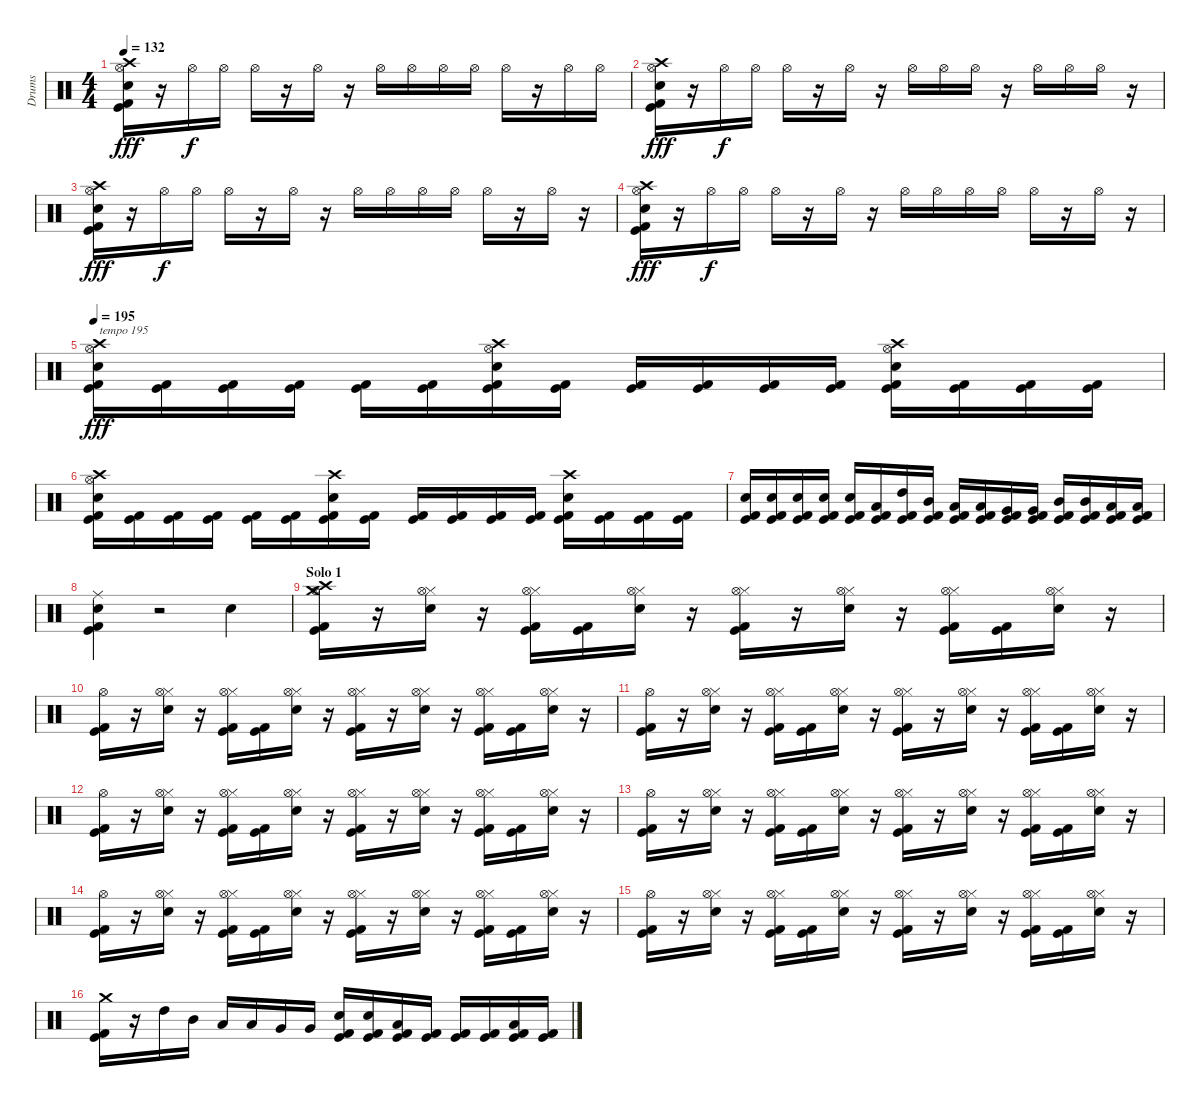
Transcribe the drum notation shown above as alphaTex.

\track ("Drums" "Drums") {instrument percussion}
\staff {score}
\articulation defaults
\ts (4 4)
\tempo 132
\clef neutral
\ks c
("Kick (hit) 2" "Kick (hit)" "Snare (hit) 2" "Crash high (hit)" "Hi-Hat (open)").16{dy fff} r.16 "Hi-Hat (open)".16{dy f} "Hi-Hat (open)".16 "Hi-Hat (open)".16 r.16 "Hi-Hat (open)".16 r.16 "Hi-Hat (open)".16 "Hi-Hat (open)".16 "Hi-Hat (open)".16 "Hi-Hat (open)".16 "Hi-Hat (open)".16 r.16 "Hi-Hat (open)".16 "Hi-Hat (open)".16 |
("Kick (hit) 2" "Kick (hit)" "Snare (hit) 2" "Crash high (hit)" "Hi-Hat (open)").16{dy fff} r.16 "Hi-Hat (open)".16{dy f} "Hi-Hat (open)".16 "Hi-Hat (open)".16 r.16 "Hi-Hat (open)".16 r.16 "Hi-Hat (open)".16 "Hi-Hat (open)".16 "Hi-Hat (open)".16 r.16 "Hi-Hat (open)".16 "Hi-Hat (open)".16 "Hi-Hat (open)".16 r.16 |
("Kick (hit) 2" "Kick (hit)" "Snare (hit) 2" "Crash high (hit)" "Hi-Hat (open)").16{dy fff} r.16 "Hi-Hat (open)".16{dy f} "Hi-Hat (open)".16 "Hi-Hat (open)".16 r.16 "Hi-Hat (open)".16 r.16 "Hi-Hat (open)".16 "Hi-Hat (open)".16 "Hi-Hat (open)".16 "Hi-Hat (open)".16 "Hi-Hat (open)".16 r.16 "Hi-Hat (open)".16 r.16 |
("Kick (hit) 2" "Kick (hit)" "Snare (hit) 2" "Crash high (hit)" "Hi-Hat (open)").16{dy fff} r.16 "Hi-Hat (open)".16{dy f} "Hi-Hat (open)".16 "Hi-Hat (open)".16 r.16 "Hi-Hat (open)".16 r.16 "Hi-Hat (open)".16 "Hi-Hat (open)".16 "Hi-Hat (open)".16 "Hi-Hat (open)".16 "Hi-Hat (open)".16 r.16 "Hi-Hat (open)".16 r.16 |
\tempo 195
("Kick (hit) 2" "Kick (hit)" "Snare (hit) 2" "Crash high (hit)" "Hi-Hat (open)").16{txt "tempo 195" dy fff} ("Kick (hit) 2" "Kick (hit)").16 ("Kick (hit) 2" "Kick (hit)").16 ("Kick (hit) 2" "Kick (hit)").16 ("Kick (hit) 2" "Kick (hit)").16 ("Kick (hit) 2" "Kick (hit)").16 ("Kick (hit) 2" "Kick (hit)" "Snare (hit) 2" "Crash high (hit)" "Hi-Hat (open)").16 ("Kick (hit) 2" "Kick (hit)").16 ("Kick (hit) 2" "Kick (hit)").16 ("Kick (hit) 2" "Kick (hit)").16 ("Kick (hit) 2" "Kick (hit)").16 ("Kick (hit) 2" "Kick (hit)").16 ("Kick (hit) 2" "Kick (hit)" "Snare (hit) 2" "Crash high (hit)" "Hi-Hat (open)").16 ("Kick (hit) 2" "Kick (hit)").16 ("Kick (hit) 2" "Kick (hit)").16 ("Kick (hit) 2" "Kick (hit)").16 |
("Kick (hit) 2" "Kick (hit)" "Snare (hit) 2" "Crash high (hit)" "Hi-Hat (open)").16 ("Kick (hit) 2" "Kick (hit)").16 ("Kick (hit) 2" "Kick (hit)").16 ("Kick (hit) 2" "Kick (hit)").16 ("Kick (hit) 2" "Kick (hit)").16 ("Kick (hit) 2" "Kick (hit)").16 ("Kick (hit) 2" "Kick (hit)" "Snare (hit) 2" "Crash high (hit)").16 ("Kick (hit) 2" "Kick (hit)").16 ("Kick (hit) 2" "Kick (hit)").16 ("Kick (hit) 2" "Kick (hit)").16 ("Kick (hit) 2" "Kick (hit)").16 ("Kick (hit) 2" "Kick (hit)").16 ("Kick (hit) 2" "Kick (hit)" "Snare (hit) 2" "Crash high (hit)").16 ("Kick (hit) 2" "Kick (hit)").16 ("Kick (hit) 2" "Kick (hit)").16 ("Kick (hit) 2" "Kick (hit)").16 |
("Kick (hit) 2" "Kick (hit)" "Snare (hit) 2").16 ("Kick (hit) 2" "Kick (hit)" "Snare (hit) 2").16 ("Kick (hit) 2" "Kick (hit)" "Snare (hit) 2").16 ("Kick (hit) 2" "Kick (hit)" "Snare (hit) 2").16 ("Kick (hit) 2" "Kick (hit)" "Snare (hit) 2").16 ("Kick (hit) 2" "Kick (hit)" "Low Tom (hit)").16 ("Kick (hit) 2" "Kick (hit)" "High Tom (hit)").16 ("Kick (hit) 2" "Kick (hit)" "Mid Tom (hit)").16 ("Kick (hit) 2" "Kick (hit)" "Low Tom (hit)").16 ("Kick (hit) 2" "Kick (hit)" "Low Tom (hit)").16 ("Kick (hit) 2" "Kick (hit)" "Very Low Tom (hit)").16 ("Kick (hit) 2" "Kick (hit)" "Very Low Tom (hit)").16 ("Kick (hit) 2" "Kick (hit)" "Mid Tom (hit)").16 ("Kick (hit) 2" "Kick (hit)" "Mid Tom (hit)").16 ("Kick (hit) 2" "Kick (hit)" "Low Tom (hit)").16 ("Kick (hit) 2" "Kick (hit)" "Low Floor Tom (hit)").16 |
("Kick (hit) 2" "Kick (hit)" "Snare (hit) 2" "Ride (middle)").4 r.2 "Snare (hit) 2".4 |
\section ("" "Solo 1")
("Kick (hit) 2" "Kick (hit)" "Crash high (hit)" "Hi-Hat (open)" "Crash medium (hit)").16 r.16 ("Snare (hit) 2" "Hi-Hat (closed)" "Hi-Hat (open)").16 r.16 ("Kick (hit) 2" "Kick (hit)" "Hi-Hat (closed)" "Hi-Hat (open)").16 ("Kick (hit) 2" "Kick (hit)").16 ("Snare (hit) 2" "Hi-Hat (closed)" "Hi-Hat (open)").16 r.16 ("Kick (hit) 2" "Kick (hit)" "Hi-Hat (closed)" "Hi-Hat (open)").16 r.16 ("Snare (hit) 2" "Hi-Hat (closed)" "Hi-Hat (open)").16 r.16 ("Kick (hit) 2" "Kick (hit)" "Hi-Hat (closed)" "Hi-Hat (open)").16 ("Kick (hit) 2" "Kick (hit)").16 ("Snare (hit) 2" "Hi-Hat (closed)" "Hi-Hat (open)").16 r.16 |
("Kick (hit) 2" "Kick (hit)" "Hi-Hat (open)").16 r.16 ("Snare (hit) 2" "Hi-Hat (closed)" "Hi-Hat (open)").16 r.16 ("Kick (hit) 2" "Kick (hit)" "Hi-Hat (closed)" "Hi-Hat (open)").16 ("Kick (hit) 2" "Kick (hit)").16 ("Snare (hit) 2" "Hi-Hat (closed)" "Hi-Hat (open)").16 r.16 ("Kick (hit) 2" "Kick (hit)" "Hi-Hat (closed)" "Hi-Hat (open)").16 r.16 ("Snare (hit) 2" "Hi-Hat (closed)" "Hi-Hat (open)").16 r.16 ("Kick (hit) 2" "Kick (hit)" "Hi-Hat (closed)" "Hi-Hat (open)").16 ("Kick (hit) 2" "Kick (hit)").16 ("Snare (hit) 2" "Hi-Hat (closed)" "Hi-Hat (open)").16 r.16 |
("Kick (hit) 2" "Kick (hit)" "Hi-Hat (open)").16 r.16 ("Snare (hit) 2" "Hi-Hat (closed)" "Hi-Hat (open)").16 r.16 ("Kick (hit) 2" "Kick (hit)" "Hi-Hat (closed)" "Hi-Hat (open)").16 ("Kick (hit) 2" "Kick (hit)").16 ("Snare (hit) 2" "Hi-Hat (closed)" "Hi-Hat (open)").16 r.16 ("Kick (hit) 2" "Kick (hit)" "Hi-Hat (closed)" "Hi-Hat (open)").16 r.16 ("Snare (hit) 2" "Hi-Hat (closed)" "Hi-Hat (open)").16 r.16 ("Kick (hit) 2" "Kick (hit)" "Hi-Hat (closed)" "Hi-Hat (open)").16 ("Kick (hit) 2" "Kick (hit)").16 ("Snare (hit) 2" "Hi-Hat (closed)" "Hi-Hat (open)").16 r.16 |
("Kick (hit) 2" "Kick (hit)" "Hi-Hat (open)").16 r.16 ("Snare (hit) 2" "Hi-Hat (closed)" "Hi-Hat (open)").16 r.16 ("Kick (hit) 2" "Kick (hit)" "Hi-Hat (closed)" "Hi-Hat (open)").16 ("Kick (hit) 2" "Kick (hit)").16 ("Snare (hit) 2" "Hi-Hat (closed)" "Hi-Hat (open)").16 r.16 ("Kick (hit) 2" "Kick (hit)" "Hi-Hat (closed)" "Hi-Hat (open)").16 r.16 ("Snare (hit) 2" "Hi-Hat (closed)" "Hi-Hat (open)").16 r.16 ("Kick (hit) 2" "Kick (hit)" "Hi-Hat (closed)" "Hi-Hat (open)").16 ("Kick (hit) 2" "Kick (hit)").16 ("Snare (hit) 2" "Hi-Hat (closed)" "Hi-Hat (open)").16 r.16 |
("Kick (hit) 2" "Kick (hit)" "Hi-Hat (open)").16 r.16 ("Snare (hit) 2" "Hi-Hat (closed)" "Hi-Hat (open)").16 r.16 ("Kick (hit) 2" "Kick (hit)" "Hi-Hat (closed)" "Hi-Hat (open)").16 ("Kick (hit) 2" "Kick (hit)").16 ("Snare (hit) 2" "Hi-Hat (closed)" "Hi-Hat (open)").16 r.16 ("Kick (hit) 2" "Kick (hit)" "Hi-Hat (closed)" "Hi-Hat (open)").16 r.16 ("Snare (hit) 2" "Hi-Hat (closed)" "Hi-Hat (open)").16 r.16 ("Kick (hit) 2" "Kick (hit)" "Hi-Hat (closed)" "Hi-Hat (open)").16 ("Kick (hit) 2" "Kick (hit)").16 ("Snare (hit) 2" "Hi-Hat (closed)" "Hi-Hat (open)").16 r.16 |
("Kick (hit) 2" "Kick (hit)" "Hi-Hat (open)").16 r.16 ("Snare (hit) 2" "Hi-Hat (closed)" "Hi-Hat (open)").16 r.16 ("Kick (hit) 2" "Kick (hit)" "Hi-Hat (closed)" "Hi-Hat (open)").16 ("Kick (hit) 2" "Kick (hit)").16 ("Snare (hit) 2" "Hi-Hat (closed)" "Hi-Hat (open)").16 r.16 ("Kick (hit) 2" "Kick (hit)" "Hi-Hat (closed)" "Hi-Hat (open)").16 r.16 ("Snare (hit) 2" "Hi-Hat (closed)" "Hi-Hat (open)").16 r.16 ("Kick (hit) 2" "Kick (hit)" "Hi-Hat (closed)" "Hi-Hat (open)").16 ("Kick (hit) 2" "Kick (hit)").16 ("Snare (hit) 2" "Hi-Hat (closed)" "Hi-Hat (open)").16 r.16 |
("Kick (hit) 2" "Kick (hit)" "Hi-Hat (open)").16 r.16 ("Snare (hit) 2" "Hi-Hat (closed)" "Hi-Hat (open)").16 r.16 ("Kick (hit) 2" "Kick (hit)" "Hi-Hat (closed)" "Hi-Hat (open)").16 ("Kick (hit) 2" "Kick (hit)").16 ("Snare (hit) 2" "Hi-Hat (closed)" "Hi-Hat (open)").16 r.16 ("Kick (hit) 2" "Kick (hit)" "Hi-Hat (closed)" "Hi-Hat (open)").16 r.16 ("Snare (hit) 2" "Hi-Hat (closed)" "Hi-Hat (open)").16 r.16 ("Kick (hit) 2" "Kick (hit)" "Hi-Hat (closed)" "Hi-Hat (open)").16 ("Kick (hit) 2" "Kick (hit)").16 ("Snare (hit) 2" "Hi-Hat (closed)" "Hi-Hat (open)").16 r.16 |
("Kick (hit) 2" "Kick (hit)" "Crash medium (hit)").16 r.16 "High Tom (hit)".16 "Mid Tom (hit)".16 "Low Tom (hit)".16 "Low Tom (hit)".16 "Very Low Tom (hit)".16 "Very Low Tom (hit)".16 ("Kick (hit) 2" "Kick (hit)" "Snare (hit) 2").16 ("Kick (hit) 2" "Kick (hit)" "Snare (hit) 2").16 ("Kick (hit) 2" "Kick (hit)" "Low Tom (hit)").16 ("Kick (hit) 2" "Kick (hit)").16 ("Kick (hit) 2" "Kick (hit)").16 ("Kick (hit) 2" "Kick (hit)").16 ("Kick (hit) 2" "Kick (hit)" "Low Floor Tom (hit)").16 ("Kick (hit) 2" "Kick (hit)").16
